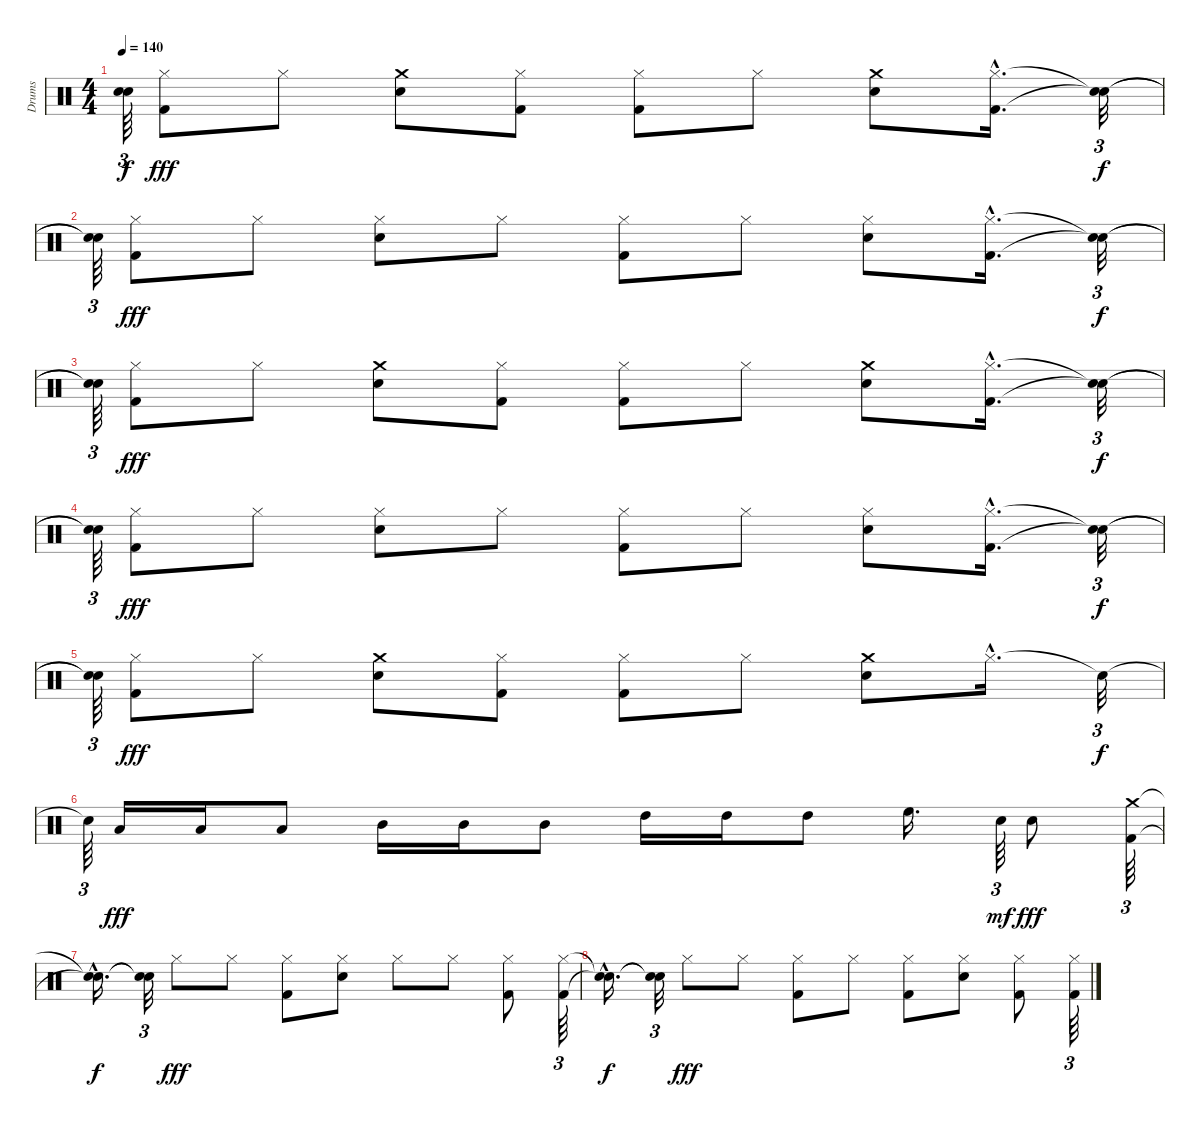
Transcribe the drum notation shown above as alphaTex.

\track ("Drums" "Drums") {instrument percussion}
\staff {score}
\articulation defaults
\ts (4 4)
\tempo 140
\clef neutral
\ks c
("Snare (hit)"{t} "Snare (hit)"{t}).64{tu (3 2) dy f} ("Kick (hit) 2" "Hi-Hat (closed)").8{dy fff} "Hi-Hat (closed)".8 ("Snare (hit) 2" "Crash medium (hit)").8 ("Kick (hit) 2" "Hi-Hat (closed)").8 ("Kick (hit) 2" "Hi-Hat (closed)").8 "Hi-Hat (closed)".8 ("Crash medium (hit)" "Snare (hit) 2").8 ("Kick (hit) 2"{hac} "Hi-Hat (closed)"{hac}).16{d} ("Snare (hit)"{t} "Snare (hit)"{t}).32{tu (3 2) dy f} |
("Snare (hit)"{t} "Snare (hit)"{t}).64{tu (3 2)} ("Hi-Hat (closed)" "Kick (hit) 2").8{dy fff} "Hi-Hat (closed)".8 ("Snare (hit) 2" "Hi-Hat (closed)").8 "Hi-Hat (closed)".8 ("Hi-Hat (closed)" "Kick (hit) 2").8 "Hi-Hat (closed)".8 ("Snare (hit) 2" "Hi-Hat (closed)").8 ("Hi-Hat (closed)"{hac} "Kick (hit) 2"{hac}).16{d} ("Snare (hit)"{t} "Snare (hit)"{t}).32{tu (3 2) dy f} |
("Snare (hit)"{t} "Snare (hit)"{t}).64{tu (3 2)} ("Kick (hit) 2" "Hi-Hat (closed)").8{dy fff} "Hi-Hat (closed)".8 ("Snare (hit) 2" "Crash medium (hit)").8 ("Kick (hit) 2" "Hi-Hat (closed)").8 ("Kick (hit) 2" "Hi-Hat (closed)").8 "Hi-Hat (closed)".8 ("Crash medium (hit)" "Snare (hit) 2").8 ("Kick (hit) 2"{hac} "Hi-Hat (closed)"{hac}).16{d} ("Snare (hit)"{t} "Snare (hit)"{t}).32{tu (3 2) dy f} |
("Snare (hit)"{t} "Snare (hit)"{t}).64{tu (3 2)} ("Hi-Hat (closed)" "Kick (hit) 2").8{dy fff} "Hi-Hat (closed)".8 ("Snare (hit) 2" "Hi-Hat (closed)").8 "Hi-Hat (closed)".8 ("Hi-Hat (closed)" "Kick (hit) 2").8 "Hi-Hat (closed)".8 ("Snare (hit) 2" "Hi-Hat (closed)").8 ("Hi-Hat (closed)"{hac} "Kick (hit) 2"{hac}).16{d} ("Snare (hit)"{t} "Snare (hit)"{t}).32{tu (3 2) dy f} |
("Snare (hit)"{t} "Snare (hit)"{t}).64{tu (3 2)} ("Kick (hit) 2" "Hi-Hat (closed)").8{dy fff} "Hi-Hat (closed)".8 ("Snare (hit) 2" "Crash medium (hit)").8 ("Kick (hit) 2" "Hi-Hat (closed)").8 ("Kick (hit) 2" "Hi-Hat (closed)").8 "Hi-Hat (closed)".8 ("Crash medium (hit)" "Snare (hit) 2").8 "Hi-Hat (closed)"{hac}.16{d} "Snare (hit)"{t}.32{tu (3 2) dy f} |
"Snare (hit)"{t}.64{tu (3 2)} "Low Tom (hit)".16{dy fff} "Low Tom (hit)".16 "Low Tom (hit)".8 "Mid Tom (hit)".16 "Mid Tom (hit)".16 "Mid Tom (hit)".8 "High Tom (hit)".16 "High Tom (hit)".16 "High Tom (hit)".8 "High Floor Tom (hit)".16{d} "Snare (hit) 2".64{tu (3 2) dy mf} "Snare (hit) 2".8{dy fff} ("Kick (hit) 2" "Crash medium (hit)").64{tu (3 2)} |
("Snare (hit)"{hac t} "Snare (hit)"{hac t}).16{d dy f} ("Snare (hit)"{t} "Snare (hit)"{t}).32{tu (3 2)} "Hi-Hat (closed)".8{dy fff} "Hi-Hat (closed)".8 ("Kick (hit) 2" "Hi-Hat (closed)").8 ("Hi-Hat (closed)" "Snare (hit) 2").8 "Hi-Hat (closed)".8 "Hi-Hat (closed)".8 ("Kick (hit) 2" "Hi-Hat (closed)").8 ("Kick (hit) 2" "Hi-Hat (closed)").64{tu (3 2)} |
("Snare (hit)"{hac t} "Snare (hit)"{hac t}).16{d dy f} ("Snare (hit)"{t} "Snare (hit)"{t}).32{tu (3 2)} "Hi-Hat (closed)".8{dy fff} "Hi-Hat (closed)".8 ("Kick (hit) 2" "Hi-Hat (closed)").8 "Hi-Hat (closed)".8 ("Kick (hit) 2" "Hi-Hat (closed)").8 ("Snare (hit) 2" "Hi-Hat (closed)").8 ("Kick (hit) 2" "Hi-Hat (closed)").8 ("Hi-Hat (closed)" "Kick (hit) 2").64{tu (3 2)}
